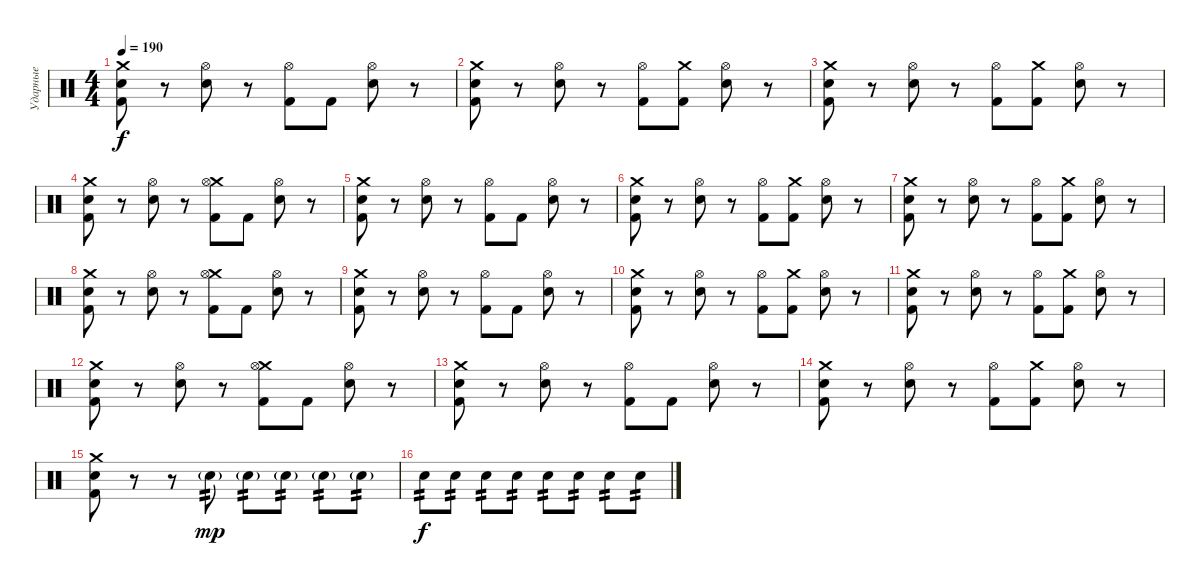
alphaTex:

\track ("Ударные" "Ударные") {instrument percussion}
\staff {score}
\articulation defaults
\ts (4 4)
\tempo 190
\clef neutral
\ks c
("Crash medium (hit)" "Electric Snare (hit)" "Kick (hit) 2").8{dy f} r.8 ("Electric Snare (hit)" "Hi-Hat (open)").8 r.8 ("Kick (hit) 2" "Hi-Hat (open)").8 "Kick (hit) 2".8 ("Electric Snare (hit)" "Hi-Hat (open)").8 r.8 |
("Crash medium (hit)" "Electric Snare (hit)" "Kick (hit) 2").8 r.8 ("Electric Snare (hit)" "Hi-Hat (open)").8 r.8 ("Kick (hit) 2" "Hi-Hat (open)").8 ("Kick (hit) 2" "Crash medium (hit)").8 ("Electric Snare (hit)" "Hi-Hat (open)").8 r.8 |
("Crash medium (hit)" "Electric Snare (hit)" "Kick (hit) 2").8 r.8 ("Electric Snare (hit)" "Hi-Hat (open)").8 r.8 ("Kick (hit) 2" "Hi-Hat (open)").8 ("Kick (hit) 2" "Crash medium (hit)").8 ("Electric Snare (hit)" "Hi-Hat (open)").8 r.8 |
("Crash medium (hit)" "Electric Snare (hit)" "Kick (hit) 2").8 r.8 ("Electric Snare (hit)" "Hi-Hat (open)").8 r.8 ("Kick (hit) 2" "Crash medium (hit)" "Hi-Hat (open)").8 "Kick (hit) 2".8 ("Electric Snare (hit)" "Hi-Hat (open)").8 r.8 |
("Crash medium (hit)" "Electric Snare (hit)" "Kick (hit) 2").8 r.8 ("Electric Snare (hit)" "Hi-Hat (open)").8 r.8 ("Kick (hit) 2" "Hi-Hat (open)").8 "Kick (hit) 2".8 ("Electric Snare (hit)" "Hi-Hat (open)").8 r.8 |
("Crash medium (hit)" "Electric Snare (hit)" "Kick (hit) 2").8 r.8 ("Electric Snare (hit)" "Hi-Hat (open)").8 r.8 ("Kick (hit) 2" "Hi-Hat (open)").8 ("Kick (hit) 2" "Crash medium (hit)").8 ("Electric Snare (hit)" "Hi-Hat (open)").8 r.8 |
("Crash medium (hit)" "Electric Snare (hit)" "Kick (hit) 2").8 r.8 ("Electric Snare (hit)" "Hi-Hat (open)").8 r.8 ("Kick (hit) 2" "Hi-Hat (open)").8 ("Kick (hit) 2" "Crash medium (hit)").8 ("Electric Snare (hit)" "Hi-Hat (open)").8 r.8 |
("Crash medium (hit)" "Electric Snare (hit)" "Kick (hit) 2").8 r.8 ("Electric Snare (hit)" "Hi-Hat (open)").8 r.8 ("Kick (hit) 2" "Crash medium (hit)" "Hi-Hat (open)").8 "Kick (hit) 2".8 ("Electric Snare (hit)" "Hi-Hat (open)").8 r.8 |
("Crash medium (hit)" "Electric Snare (hit)" "Kick (hit) 2").8 r.8 ("Electric Snare (hit)" "Hi-Hat (open)").8 r.8 ("Kick (hit) 2" "Hi-Hat (open)").8 "Kick (hit) 2".8 ("Electric Snare (hit)" "Hi-Hat (open)").8 r.8 |
("Crash medium (hit)" "Electric Snare (hit)" "Kick (hit) 2").8 r.8 ("Electric Snare (hit)" "Hi-Hat (open)").8 r.8 ("Kick (hit) 2" "Hi-Hat (open)").8 ("Kick (hit) 2" "Crash medium (hit)").8 ("Electric Snare (hit)" "Hi-Hat (open)").8 r.8 |
("Crash medium (hit)" "Electric Snare (hit)" "Kick (hit) 2").8 r.8 ("Electric Snare (hit)" "Hi-Hat (open)").8 r.8 ("Kick (hit) 2" "Hi-Hat (open)").8 ("Kick (hit) 2" "Crash medium (hit)").8 ("Electric Snare (hit)" "Hi-Hat (open)").8 r.8 |
("Crash medium (hit)" "Electric Snare (hit)" "Kick (hit) 2").8 r.8 ("Electric Snare (hit)" "Hi-Hat (open)").8 r.8 ("Kick (hit) 2" "Crash medium (hit)" "Hi-Hat (open)").8 "Kick (hit) 2".8 ("Electric Snare (hit)" "Hi-Hat (open)").8 r.8 |
("Crash medium (hit)" "Electric Snare (hit)" "Kick (hit) 2").8 r.8 ("Electric Snare (hit)" "Hi-Hat (open)").8 r.8 ("Kick (hit) 2" "Hi-Hat (open)").8 "Kick (hit) 2".8 ("Electric Snare (hit)" "Hi-Hat (open)").8 r.8 |
("Crash medium (hit)" "Electric Snare (hit)" "Kick (hit) 2").8 r.8 ("Electric Snare (hit)" "Hi-Hat (open)").8 r.8 ("Kick (hit) 2" "Hi-Hat (open)").8 ("Kick (hit) 2" "Crash medium (hit)").8 ("Electric Snare (hit)" "Hi-Hat (open)").8 r.8 |
("Crash medium (hit)" "Electric Snare (hit)" "Kick (hit) 2").8 r.8 r.8 "Electric Snare (hit)"{g}.8{tp 2 dy mp} "Electric Snare (hit)"{g}.8{tp 2} "Electric Snare (hit)"{g}.8{tp 2} "Electric Snare (hit)"{g}.8{tp 2} "Electric Snare (hit)"{g}.8{tp 2} |
"Electric Snare (hit)".8{tp 2 dy f} "Electric Snare (hit)".8{tp 2} "Electric Snare (hit)".8{tp 2} "Electric Snare (hit)".8{tp 2} "Electric Snare (hit)".8{tp 2} "Electric Snare (hit)".8{tp 2} "Electric Snare (hit)".8{tp 2} "Electric Snare (hit)".8{tp 2}
